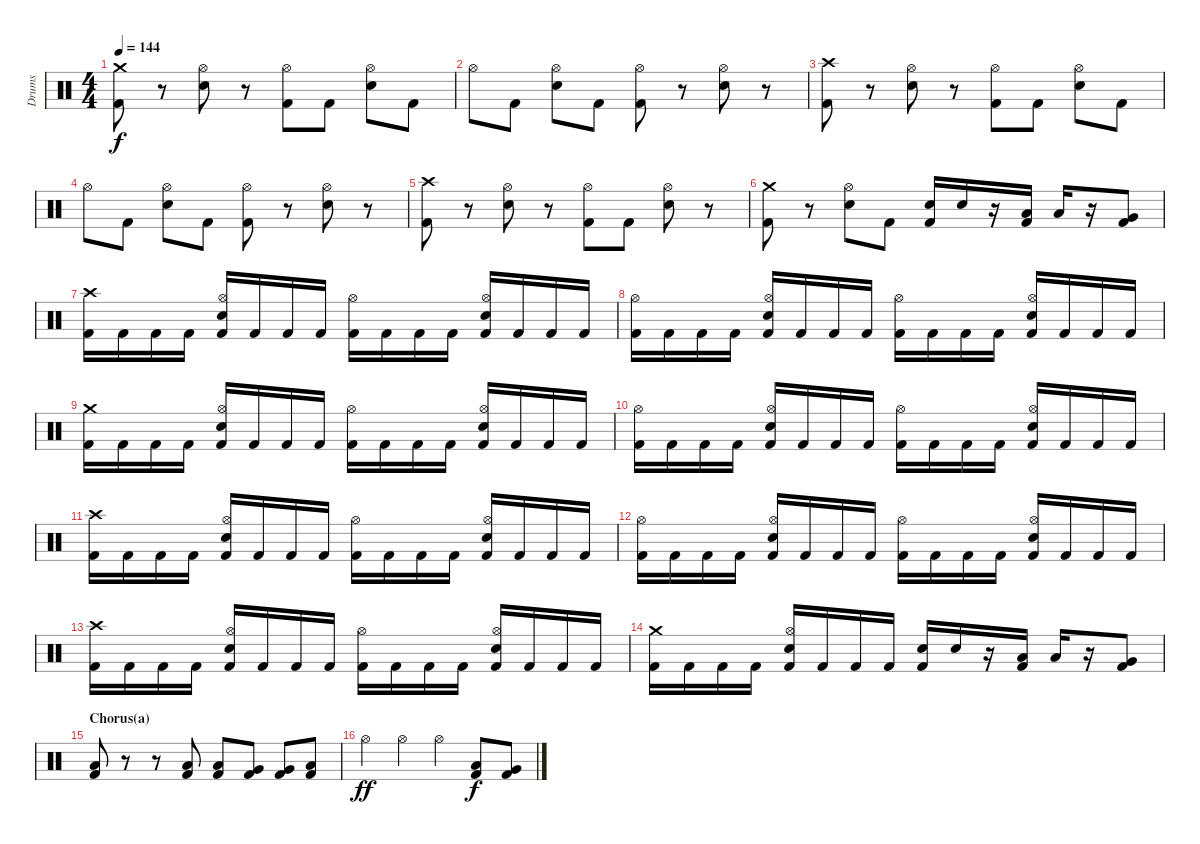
\track ("Drums" "Drums") {instrument percussion}
\staff {score}
\articulation defaults
\ts (4 4)
\tempo 144
\clef neutral
\ks c
("Kick (hit) 2" "Crash medium (hit)").8{dy f} r.8 ("Hi-Hat (open)" "Electric Snare (hit)").8 r.8 ("Kick (hit) 2" "Hi-Hat (open)").8 "Kick (hit) 2".8 ("Hi-Hat (open)" "Electric Snare (hit)").8 "Kick (hit) 2".8 |
"Hi-Hat (open)".8 "Kick (hit) 2".8 ("Hi-Hat (open)" "Electric Snare (hit)").8 "Kick (hit) 2".8 ("Kick (hit) 2" "Hi-Hat (open)").8 r.8 ("Hi-Hat (open)" "Electric Snare (hit)").8 r.8 |
("Kick (hit) 2" "Crash high (hit)").8 r.8 ("Hi-Hat (open)" "Electric Snare (hit)").8 r.8 ("Kick (hit) 2" "Hi-Hat (open)").8 "Kick (hit) 2".8 ("Hi-Hat (open)" "Electric Snare (hit)").8 "Kick (hit) 2".8 |
"Hi-Hat (open)".8 "Kick (hit) 2".8 ("Hi-Hat (open)" "Electric Snare (hit)").8 "Kick (hit) 2".8 ("Kick (hit) 2" "Hi-Hat (open)").8 r.8 ("Hi-Hat (open)" "Electric Snare (hit)").8 r.8 |
("Kick (hit) 2" "Crash high (hit)").8 r.8 ("Hi-Hat (open)" "Electric Snare (hit)").8 r.8 ("Kick (hit) 2" "Hi-Hat (open)").8 "Kick (hit) 2".8 ("Hi-Hat (open)" "Electric Snare (hit)").8 r.8 |
("Kick (hit) 2" "Crash medium (hit)").8 r.8 ("Hi-Hat (open)" "Electric Snare (hit)").8 "Kick (hit) 2".8 ("Kick (hit) 2" "Electric Snare (hit)").16 "Electric Snare (hit)".16 r.16 ("Kick (hit) 2" "Low Tom (hit)").16 "Low Tom (hit)".16 r.16 ("Kick (hit) 2" "Very Low Tom (hit)").8 |
("Kick (hit) 2" "Crash high (hit)").16 "Kick (hit) 2".16 "Kick (hit) 2".16 "Kick (hit) 2".16 ("Kick (hit) 2" "Hi-Hat (open)" "Electric Snare (hit)").16 "Kick (hit) 2".16 "Kick (hit) 2".16 "Kick (hit) 2".16 ("Kick (hit) 2" "Hi-Hat (open)").16 "Kick (hit) 2".16 "Kick (hit) 2".16 "Kick (hit) 2".16 ("Kick (hit) 2" "Hi-Hat (open)" "Electric Snare (hit)").16 "Kick (hit) 2".16 "Kick (hit) 2".16 "Kick (hit) 2".16 |
("Kick (hit) 2" "Hi-Hat (open)").16 "Kick (hit) 2".16 "Kick (hit) 2".16 "Kick (hit) 2".16 ("Kick (hit) 2" "Hi-Hat (open)" "Electric Snare (hit)").16 "Kick (hit) 2".16 "Kick (hit) 2".16 "Kick (hit) 2".16 ("Kick (hit) 2" "Hi-Hat (open)").16 "Kick (hit) 2".16 "Kick (hit) 2".16 "Kick (hit) 2".16 ("Kick (hit) 2" "Hi-Hat (open)" "Electric Snare (hit)").16 "Kick (hit) 2".16 "Kick (hit) 2".16 "Kick (hit) 2".16 |
("Kick (hit) 2" "Crash medium (hit)").16 "Kick (hit) 2".16 "Kick (hit) 2".16 "Kick (hit) 2".16 ("Kick (hit) 2" "Hi-Hat (open)" "Electric Snare (hit)").16 "Kick (hit) 2".16 "Kick (hit) 2".16 "Kick (hit) 2".16 ("Kick (hit) 2" "Hi-Hat (open)").16 "Kick (hit) 2".16 "Kick (hit) 2".16 "Kick (hit) 2".16 ("Kick (hit) 2" "Hi-Hat (open)" "Electric Snare (hit)").16 "Kick (hit) 2".16 "Kick (hit) 2".16 "Kick (hit) 2".16 |
("Kick (hit) 2" "Hi-Hat (open)").16 "Kick (hit) 2".16 "Kick (hit) 2".16 "Kick (hit) 2".16 ("Kick (hit) 2" "Hi-Hat (open)" "Electric Snare (hit)").16 "Kick (hit) 2".16 "Kick (hit) 2".16 "Kick (hit) 2".16 ("Kick (hit) 2" "Hi-Hat (open)").16 "Kick (hit) 2".16 "Kick (hit) 2".16 "Kick (hit) 2".16 ("Kick (hit) 2" "Hi-Hat (open)" "Electric Snare (hit)").16 "Kick (hit) 2".16 "Kick (hit) 2".16 "Kick (hit) 2".16 |
("Kick (hit) 2" "Crash high (hit)").16 "Kick (hit) 2".16 "Kick (hit) 2".16 "Kick (hit) 2".16 ("Kick (hit) 2" "Hi-Hat (open)" "Electric Snare (hit)").16 "Kick (hit) 2".16 "Kick (hit) 2".16 "Kick (hit) 2".16 ("Kick (hit) 2" "Hi-Hat (open)").16 "Kick (hit) 2".16 "Kick (hit) 2".16 "Kick (hit) 2".16 ("Kick (hit) 2" "Hi-Hat (open)" "Electric Snare (hit)").16 "Kick (hit) 2".16 "Kick (hit) 2".16 "Kick (hit) 2".16 |
("Kick (hit) 2" "Hi-Hat (open)").16 "Kick (hit) 2".16 "Kick (hit) 2".16 "Kick (hit) 2".16 ("Kick (hit) 2" "Hi-Hat (open)" "Electric Snare (hit)").16 "Kick (hit) 2".16 "Kick (hit) 2".16 "Kick (hit) 2".16 ("Kick (hit) 2" "Hi-Hat (open)").16 "Kick (hit) 2".16 "Kick (hit) 2".16 "Kick (hit) 2".16 ("Kick (hit) 2" "Hi-Hat (open)" "Electric Snare (hit)").16 "Kick (hit) 2".16 "Kick (hit) 2".16 "Kick (hit) 2".16 |
("Kick (hit) 2" "Crash high (hit)").16 "Kick (hit) 2".16 "Kick (hit) 2".16 "Kick (hit) 2".16 ("Kick (hit) 2" "Hi-Hat (open)" "Electric Snare (hit)").16 "Kick (hit) 2".16 "Kick (hit) 2".16 "Kick (hit) 2".16 ("Kick (hit) 2" "Hi-Hat (open)").16 "Kick (hit) 2".16 "Kick (hit) 2".16 "Kick (hit) 2".16 ("Kick (hit) 2" "Hi-Hat (open)" "Electric Snare (hit)").16 "Kick (hit) 2".16 "Kick (hit) 2".16 "Kick (hit) 2".16 |
("Kick (hit) 2" "Crash medium (hit)").16 "Kick (hit) 2".16 "Kick (hit) 2".16 "Kick (hit) 2".16 ("Kick (hit) 2" "Hi-Hat (open)" "Electric Snare (hit)").16 "Kick (hit) 2".16 "Kick (hit) 2".16 "Kick (hit) 2".16 ("Kick (hit) 2" "Electric Snare (hit)").16 "Electric Snare (hit)".16 r.16 ("Kick (hit) 2" "Low Tom (hit)").16 "Low Tom (hit)".16 r.16 ("Kick (hit) 2" "Very Low Tom (hit)").8 |
\section ("" "Chorus(a)")
("Kick (hit) 2" "Low Tom (hit)").8 r.8 r.8 ("Kick (hit) 2" "Low Tom (hit)").8 ("Kick (hit) 2" "Low Tom (hit)").8 ("Kick (hit) 2" "Very Low Tom (hit)").8 ("Kick (hit) 2" "Very Low Tom (hit)").8 ("Kick (hit) 2" "Low Floor Tom (hit)").8 |
"Hi-Hat (open)".4{dy ff} "Hi-Hat (open)".4 "Hi-Hat (open)".4 ("Kick (hit) 2" "Low Tom (hit)").8{dy f} ("Kick (hit) 2" "Very Low Tom (hit)").8
